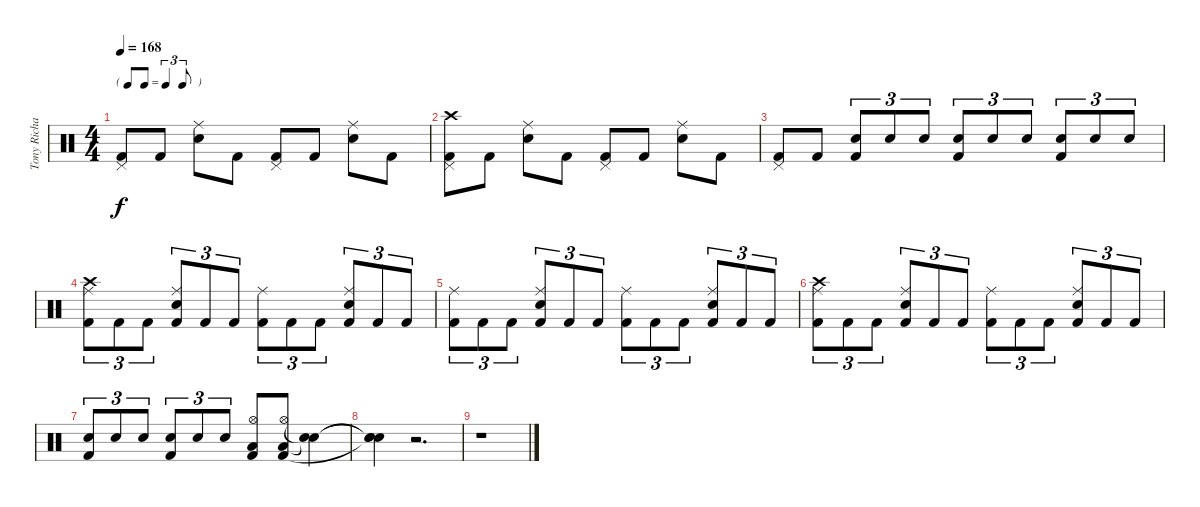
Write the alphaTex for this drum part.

\track ("Tony Richards (drums)" "Tony Richa") {instrument percussion}
\staff {score}
\articulation defaults
\ts (4 4)
\tf triplet8th
\tempo 168
\clef neutral
\ks c
("Pedal Hi-Hat (hit)" "Kick (hit) 2").8{dy f} "Kick (hit) 2".8 ("Ride (middle)" "Snare (hit) 2").8 "Kick (hit) 2".8 ("Pedal Hi-Hat (hit)" "Kick (hit) 2").8 "Kick (hit) 2".8 ("Ride (middle)" "Snare (hit) 2").8 "Kick (hit) 2".8 |
("Crash high (hit)" "Pedal Hi-Hat (hit)" "Kick (hit) 2").8 "Kick (hit) 2".8 ("Ride (middle)" "Snare (hit) 2").8 "Kick (hit) 2".8 ("Pedal Hi-Hat (hit)" "Kick (hit) 2").8 "Kick (hit) 2".8 ("Ride (middle)" "Snare (hit) 2").8 "Kick (hit) 2".8 |
("Pedal Hi-Hat (hit)" "Kick (hit) 2").8 "Kick (hit) 2".8 ("Snare (hit) 2" "Kick (hit) 2").8{tu (3 2)} "Snare (hit) 2".8{tu (3 2)} "Snare (hit) 2".8{tu (3 2)} ("Snare (hit) 2" "Kick (hit) 2").8{tu (3 2)} "Snare (hit) 2".8{tu (3 2)} "Snare (hit) 2".8{tu (3 2)} ("Snare (hit) 2" "Kick (hit) 2").8{tu (3 2)} "Snare (hit) 2".8{tu (3 2)} "Snare (hit) 2".8{tu (3 2)} |
("Crash high (hit)" "Ride (middle)" "Kick (hit) 2").8{tu (3 2)} "Kick (hit) 2".8{tu (3 2)} "Kick (hit) 2".8{tu (3 2)} ("Ride (middle)" "Snare (hit) 2" "Kick (hit) 2").8{tu (3 2)} "Kick (hit) 2".8{tu (3 2)} "Kick (hit) 2".8{tu (3 2)} ("Ride (middle)" "Kick (hit) 2").8{tu (3 2)} "Kick (hit) 2".8{tu (3 2)} "Kick (hit) 2".8{tu (3 2)} ("Ride (middle)" "Snare (hit) 2" "Kick (hit) 2").8{tu (3 2)} "Kick (hit) 2".8{tu (3 2)} "Kick (hit) 2".8{tu (3 2)} |
("Ride (middle)" "Kick (hit) 2").8{tu (3 2)} "Kick (hit) 2".8{tu (3 2)} "Kick (hit) 2".8{tu (3 2)} ("Ride (middle)" "Snare (hit) 2" "Kick (hit) 2").8{tu (3 2)} "Kick (hit) 2".8{tu (3 2)} "Kick (hit) 2".8{tu (3 2)} ("Ride (middle)" "Kick (hit) 2").8{tu (3 2)} "Kick (hit) 2".8{tu (3 2)} "Kick (hit) 2".8{tu (3 2)} ("Ride (middle)" "Snare (hit) 2" "Kick (hit) 2").8{tu (3 2)} "Kick (hit) 2".8{tu (3 2)} "Kick (hit) 2".8{tu (3 2)} |
("Crash high (hit)" "Ride (middle)" "Kick (hit) 2").8{tu (3 2)} "Kick (hit) 2".8{tu (3 2)} "Kick (hit) 2".8{tu (3 2)} ("Ride (middle)" "Snare (hit) 2" "Kick (hit) 2").8{tu (3 2)} "Kick (hit) 2".8{tu (3 2)} "Kick (hit) 2".8{tu (3 2)} ("Ride (middle)" "Kick (hit) 2").8{tu (3 2)} "Kick (hit) 2".8{tu (3 2)} "Kick (hit) 2".8{tu (3 2)} ("Ride (middle)" "Snare (hit) 2" "Kick (hit) 2").8{tu (3 2)} "Kick (hit) 2".8{tu (3 2)} "Kick (hit) 2".8{tu (3 2)} |
("Snare (hit) 2" "Kick (hit) 2").8{tu (3 2)} "Snare (hit) 2".8{tu (3 2)} "Snare (hit) 2".8{tu (3 2)} ("Snare (hit) 2" "Kick (hit) 2").8{tu (3 2)} "Snare (hit) 2".8{tu (3 2)} "Snare (hit) 2".8{tu (3 2)} ("Hi-Hat (open)" "Low Floor Tom (hit)" "Kick (hit) 2").8 ("Hi-Hat (open)" "Low Floor Tom (hit)" "Kick (hit) 2").8 ("Snare (hit)"{t} "Snare (hit)"{t}).4 |
("Snare (hit)"{t} "Snare (hit)"{t} "Snare (hit)"{t}).4 r.2{d} |
r.1
